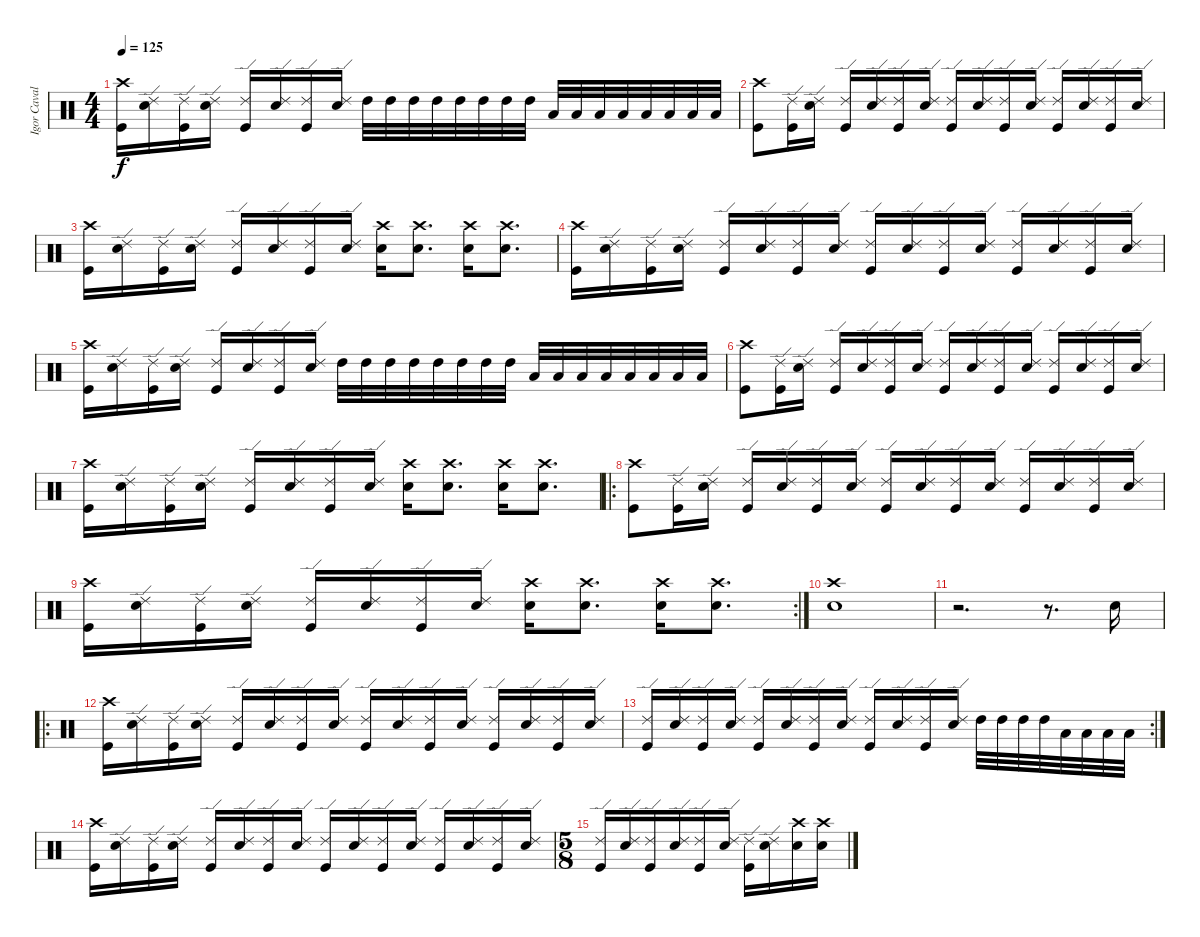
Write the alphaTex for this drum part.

\track ("Igor Cavalera" "Igor Caval") {instrument percussion}
\staff {score}
\articulation defaults
\ts (4 4)
\tempo 125
\clef neutral
\ks c
("Crash high (hit)" "Kick (hit)").16{dy f} ("Ride (edge) 2" "Snare (hit) 2").16 ("Ride (edge) 2" "Kick (hit)").16 ("Ride (edge) 2" "Snare (hit) 2").16 ("Ride (edge) 2" "Kick (hit)").16 ("Ride (edge) 2" "Snare (hit) 2").16 ("Ride (edge) 2" "Kick (hit)").16 ("Ride (edge) 2" "Snare (hit) 2").16 "High Tom (hit)".32 "High Tom (hit)".32 "High Tom (hit)".32 "High Tom (hit)".32 "High Tom (hit)".32 "High Tom (hit)".32 "High Tom (hit)".32 "High Tom (hit)".32 "Low Tom (hit)".32 "Low Tom (hit)".32 "Low Tom (hit)".32 "Low Tom (hit)".32 "Low Tom (hit)".32 "Low Tom (hit)".32 "Low Tom (hit)".32 "Low Tom (hit)".32 |
("Crash high (hit)" "Kick (hit)").8 ("Ride (edge) 2" "Kick (hit)").16 ("Ride (edge) 2" "Snare (hit) 2").16 ("Ride (edge) 2" "Kick (hit)").16 ("Ride (edge) 2" "Snare (hit) 2").16 ("Ride (edge) 2" "Kick (hit)").16 ("Ride (edge) 2" "Snare (hit) 2").16 ("Ride (edge) 2" "Kick (hit)").16 ("Ride (edge) 2" "Snare (hit) 2").16 ("Ride (edge) 2" "Kick (hit)").16 ("Ride (edge) 2" "Snare (hit) 2").16 ("Ride (edge) 2" "Kick (hit)").16 ("Ride (edge) 2" "Snare (hit) 2").16 ("Ride (edge) 2" "Kick (hit)").16 ("Ride (edge) 2" "Snare (hit) 2").16 |
("Crash high (hit)" "Kick (hit)").16 ("Ride (edge) 2" "Snare (hit) 2").16 ("Ride (edge) 2" "Kick (hit)").16 ("Ride (edge) 2" "Snare (hit) 2").16 ("Ride (edge) 2" "Kick (hit)").16 ("Ride (edge) 2" "Snare (hit) 2").16 ("Ride (edge) 2" "Kick (hit)").16 ("Ride (edge) 2" "Snare (hit) 2").16 ("Crash high (hit)" "Snare (hit) 2").16 ("Crash high (hit)" "Snare (hit) 2").8{d} ("Crash high (hit)" "Snare (hit) 2").16 ("Crash high (hit)" "Snare (hit) 2").8{d} |
("Crash high (hit)" "Kick (hit)").16 ("Ride (edge) 2" "Snare (hit) 2").16 ("Ride (edge) 2" "Kick (hit)").16 ("Ride (edge) 2" "Snare (hit) 2").16 ("Ride (edge) 2" "Kick (hit)").16 ("Ride (edge) 2" "Snare (hit) 2").16 ("Ride (edge) 2" "Kick (hit)").16 ("Ride (edge) 2" "Snare (hit) 2").16 ("Ride (edge) 2" "Kick (hit)").16 ("Ride (edge) 2" "Snare (hit) 2").16 ("Ride (edge) 2" "Kick (hit)").16 ("Ride (edge) 2" "Snare (hit) 2").16 ("Ride (edge) 2" "Kick (hit)").16 ("Ride (edge) 2" "Snare (hit) 2").16 ("Ride (edge) 2" "Kick (hit)").16 ("Ride (edge) 2" "Snare (hit) 2").16 |
("Crash high (hit)" "Kick (hit)").16 ("Ride (edge) 2" "Snare (hit) 2").16 ("Ride (edge) 2" "Kick (hit)").16 ("Ride (edge) 2" "Snare (hit) 2").16 ("Ride (edge) 2" "Kick (hit)").16 ("Ride (edge) 2" "Snare (hit) 2").16 ("Ride (edge) 2" "Kick (hit)").16 ("Ride (edge) 2" "Snare (hit) 2").16 "High Tom (hit)".32 "High Tom (hit)".32 "High Tom (hit)".32 "High Tom (hit)".32 "High Tom (hit)".32 "High Tom (hit)".32 "High Tom (hit)".32 "High Tom (hit)".32 "Low Tom (hit)".32 "Low Tom (hit)".32 "Low Tom (hit)".32 "Low Tom (hit)".32 "Low Tom (hit)".32 "Low Tom (hit)".32 "Low Tom (hit)".32 "Low Tom (hit)".32 |
("Crash high (hit)" "Kick (hit)").8 ("Ride (edge) 2" "Kick (hit)").16 ("Ride (edge) 2" "Snare (hit) 2").16 ("Ride (edge) 2" "Kick (hit)").16 ("Ride (edge) 2" "Snare (hit) 2").16 ("Ride (edge) 2" "Kick (hit)").16 ("Ride (edge) 2" "Snare (hit) 2").16 ("Ride (edge) 2" "Kick (hit)").16 ("Ride (edge) 2" "Snare (hit) 2").16 ("Ride (edge) 2" "Kick (hit)").16 ("Ride (edge) 2" "Snare (hit) 2").16 ("Ride (edge) 2" "Kick (hit)").16 ("Ride (edge) 2" "Snare (hit) 2").16 ("Ride (edge) 2" "Kick (hit)").16 ("Ride (edge) 2" "Snare (hit) 2").16 |
("Crash high (hit)" "Kick (hit)").16 ("Ride (edge) 2" "Snare (hit) 2").16 ("Ride (edge) 2" "Kick (hit)").16 ("Ride (edge) 2" "Snare (hit) 2").16 ("Ride (edge) 2" "Kick (hit)").16 ("Ride (edge) 2" "Snare (hit) 2").16 ("Ride (edge) 2" "Kick (hit)").16 ("Ride (edge) 2" "Snare (hit) 2").16 ("Crash high (hit)" "Snare (hit) 2").16 ("Crash high (hit)" "Snare (hit) 2").8{d} ("Crash high (hit)" "Snare (hit) 2").16 ("Crash high (hit)" "Snare (hit) 2").8{d} |
\ro
("Crash high (hit)" "Kick (hit)").8 ("Ride (edge) 2" "Kick (hit)").16 ("Ride (edge) 2" "Snare (hit) 2").16 ("Ride (edge) 2" "Kick (hit)").16 ("Ride (edge) 2" "Snare (hit) 2").16 ("Ride (edge) 2" "Kick (hit)").16 ("Ride (edge) 2" "Snare (hit) 2").16 ("Ride (edge) 2" "Kick (hit)").16 ("Ride (edge) 2" "Snare (hit) 2").16 ("Ride (edge) 2" "Kick (hit)").16 ("Ride (edge) 2" "Snare (hit) 2").16 ("Ride (edge) 2" "Kick (hit)").16 ("Ride (edge) 2" "Snare (hit) 2").16 ("Ride (edge) 2" "Kick (hit)").16 ("Ride (edge) 2" "Snare (hit) 2").16 |
\rc 2
("Crash high (hit)" "Kick (hit)").16 ("Ride (edge) 2" "Snare (hit) 2").16 ("Ride (edge) 2" "Kick (hit)").16 ("Ride (edge) 2" "Snare (hit) 2").16 ("Ride (edge) 2" "Kick (hit)").16 ("Ride (edge) 2" "Snare (hit) 2").16 ("Ride (edge) 2" "Kick (hit)").16 ("Ride (edge) 2" "Snare (hit) 2").16 ("Crash high (hit)" "Snare (hit) 2").16 ("Crash high (hit)" "Snare (hit) 2").8{d} ("Crash high (hit)" "Snare (hit) 2").16 ("Crash high (hit)" "Snare (hit) 2").8{d} |
("Crash high (hit)" "Snare (hit) 2").1 |
r.2{d} r.8{d} "Snare (hit) 2".16 |
\ro
("Crash high (hit)" "Kick (hit)").16 ("Ride (edge) 2" "Snare (hit) 2").16 ("Ride (edge) 2" "Kick (hit)").16 ("Ride (edge) 2" "Snare (hit) 2").16 ("Ride (edge) 2" "Kick (hit)").16 ("Ride (edge) 2" "Snare (hit) 2").16 ("Ride (edge) 2" "Kick (hit)").16 ("Ride (edge) 2" "Snare (hit) 2").16 ("Ride (edge) 2" "Kick (hit)").16 ("Ride (edge) 2" "Snare (hit) 2").16 ("Ride (edge) 2" "Kick (hit)").16 ("Ride (edge) 2" "Snare (hit) 2").16 ("Ride (edge) 2" "Kick (hit)").16 ("Ride (edge) 2" "Snare (hit) 2").16 ("Ride (edge) 2" "Kick (hit)").16 ("Ride (edge) 2" "Snare (hit) 2").16 |
\rc 2
("Ride (edge) 2" "Kick (hit)").16 ("Ride (edge) 2" "Snare (hit) 2").16 ("Ride (edge) 2" "Kick (hit)").16 ("Ride (edge) 2" "Snare (hit) 2").16 ("Ride (edge) 2" "Kick (hit)").16 ("Ride (edge) 2" "Snare (hit) 2").16 ("Ride (edge) 2" "Kick (hit)").16 ("Ride (edge) 2" "Snare (hit) 2").16 ("Ride (edge) 2" "Kick (hit)").16 ("Ride (edge) 2" "Snare (hit) 2").16 ("Ride (edge) 2" "Kick (hit)").16 ("Ride (edge) 2" "Snare (hit) 2").16 "High Tom (hit)".32 "High Tom (hit)".32 "High Tom (hit)".32 "High Tom (hit)".32 "Low Tom (hit)".32 "Low Tom (hit)".32 "Low Tom (hit)".32 "Low Tom (hit)".32 |
("Crash high (hit)" "Kick (hit)").16 ("Ride (edge) 2" "Snare (hit) 2").16 ("Ride (edge) 2" "Kick (hit)").16 ("Ride (edge) 2" "Snare (hit) 2").16 ("Ride (edge) 2" "Kick (hit)").16 ("Ride (edge) 2" "Snare (hit) 2").16 ("Ride (edge) 2" "Kick (hit)").16 ("Ride (edge) 2" "Snare (hit) 2").16 ("Ride (edge) 2" "Kick (hit)").16 ("Ride (edge) 2" "Snare (hit) 2").16 ("Ride (edge) 2" "Kick (hit)").16 ("Ride (edge) 2" "Snare (hit) 2").16 ("Ride (edge) 2" "Kick (hit)").16 ("Ride (edge) 2" "Snare (hit) 2").16 ("Ride (edge) 2" "Kick (hit)").16 ("Ride (edge) 2" "Snare (hit) 2").16 |
\ts (5 8)
("Ride (edge) 2" "Kick (hit)").16 ("Ride (edge) 2" "Snare (hit) 2").16 ("Ride (edge) 2" "Kick (hit)").16 ("Ride (edge) 2" "Snare (hit) 2").16 ("Ride (edge) 2" "Kick (hit)").16 ("Ride (edge) 2" "Snare (hit) 2").16 ("Ride (edge) 2" "Kick (hit)").16 ("Ride (edge) 2" "Snare (hit) 2").16 ("Crash high (hit)" "Snare (hit) 2").16 ("Crash high (hit)" "Snare (hit) 2").16
